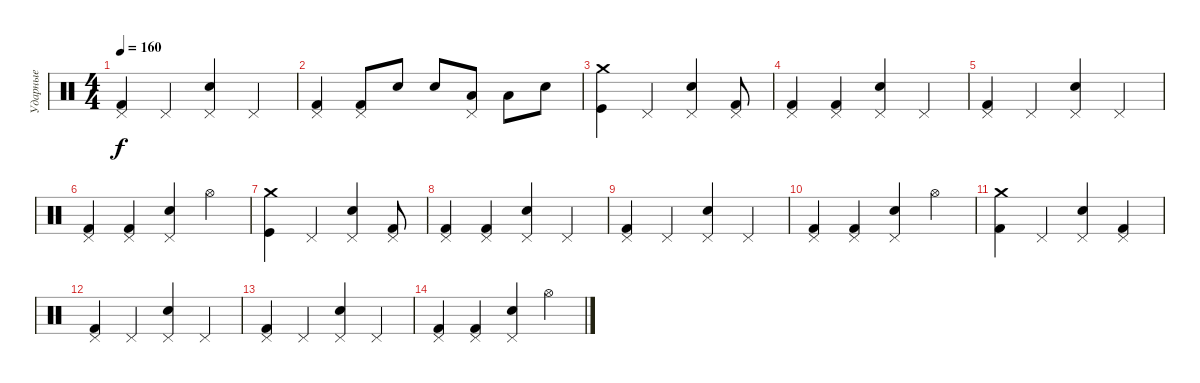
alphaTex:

\track ("Ударные" "Ударные") {instrument percussion}
\staff {score}
\articulation defaults
\ts (4 4)
\tempo 160
\clef neutral
\ks c
("Pedal Hi-Hat (hit)" "Kick (hit) 2").4{dy f} "Pedal Hi-Hat (hit)".4 ("Pedal Hi-Hat (hit)" "Snare (hit) 2").4 "Pedal Hi-Hat (hit)".4 |
("Pedal Hi-Hat (hit)" "Kick (hit) 2").4 ("Pedal Hi-Hat (hit)" "Kick (hit) 2").8 "Snare (hit) 2".8 "Snare (hit) 2".8 ("Pedal Hi-Hat (hit)" "Low Tom (hit)").8 "Low Floor Tom (hit)".8 "Snare (hit) 2".8 |
("Crash medium (hit)" "Kick (hit)").4 "Pedal Hi-Hat (hit)".4 ("Pedal Hi-Hat (hit)" "Snare (hit) 2").4 ("Pedal Hi-Hat (hit)" "Kick (hit) 2").8 |
("Pedal Hi-Hat (hit)" "Kick (hit) 2").4 ("Pedal Hi-Hat (hit)" "Kick (hit) 2").4 ("Pedal Hi-Hat (hit)" "Snare (hit) 2").4 "Pedal Hi-Hat (hit)".4 |
("Pedal Hi-Hat (hit)" "Kick (hit) 2").4 "Pedal Hi-Hat (hit)".4 ("Pedal Hi-Hat (hit)" "Snare (hit) 2").4 "Pedal Hi-Hat (hit)".4 |
("Pedal Hi-Hat (hit)" "Kick (hit) 2").4 ("Pedal Hi-Hat (hit)" "Kick (hit) 2").4 ("Pedal Hi-Hat (hit)" "Snare (hit) 2").4 "Hi-Hat (open)".4 |
("Crash medium (hit)" "Kick (hit)").4 "Pedal Hi-Hat (hit)".4 ("Pedal Hi-Hat (hit)" "Snare (hit) 2").4 ("Pedal Hi-Hat (hit)" "Kick (hit) 2").8 |
("Pedal Hi-Hat (hit)" "Kick (hit) 2").4 ("Pedal Hi-Hat (hit)" "Kick (hit) 2").4 ("Pedal Hi-Hat (hit)" "Snare (hit) 2").4 "Pedal Hi-Hat (hit)".4 |
("Pedal Hi-Hat (hit)" "Kick (hit) 2").4 "Pedal Hi-Hat (hit)".4 ("Pedal Hi-Hat (hit)" "Snare (hit) 2").4 "Pedal Hi-Hat (hit)".4 |
("Pedal Hi-Hat (hit)" "Kick (hit) 2").4 ("Pedal Hi-Hat (hit)" "Kick (hit) 2").4 ("Pedal Hi-Hat (hit)" "Snare (hit) 2").4 "Hi-Hat (open)".4 |
("Crash medium (hit)" "Kick (hit) 2").4 "Pedal Hi-Hat (hit)".4 ("Pedal Hi-Hat (hit)" "Snare (hit) 2").4 ("Pedal Hi-Hat (hit)" "Kick (hit) 2").4 |
("Pedal Hi-Hat (hit)" "Kick (hit) 2").4 "Pedal Hi-Hat (hit)".4 ("Pedal Hi-Hat (hit)" "Snare (hit) 2").4 "Pedal Hi-Hat (hit)".4 |
("Pedal Hi-Hat (hit)" "Kick (hit) 2").4 "Pedal Hi-Hat (hit)".4 ("Pedal Hi-Hat (hit)" "Snare (hit) 2").4 "Pedal Hi-Hat (hit)".4 |
("Pedal Hi-Hat (hit)" "Kick (hit) 2").4 ("Pedal Hi-Hat (hit)" "Kick (hit) 2").4 ("Pedal Hi-Hat (hit)" "Snare (hit) 2").4 "Hi-Hat (open)".4
